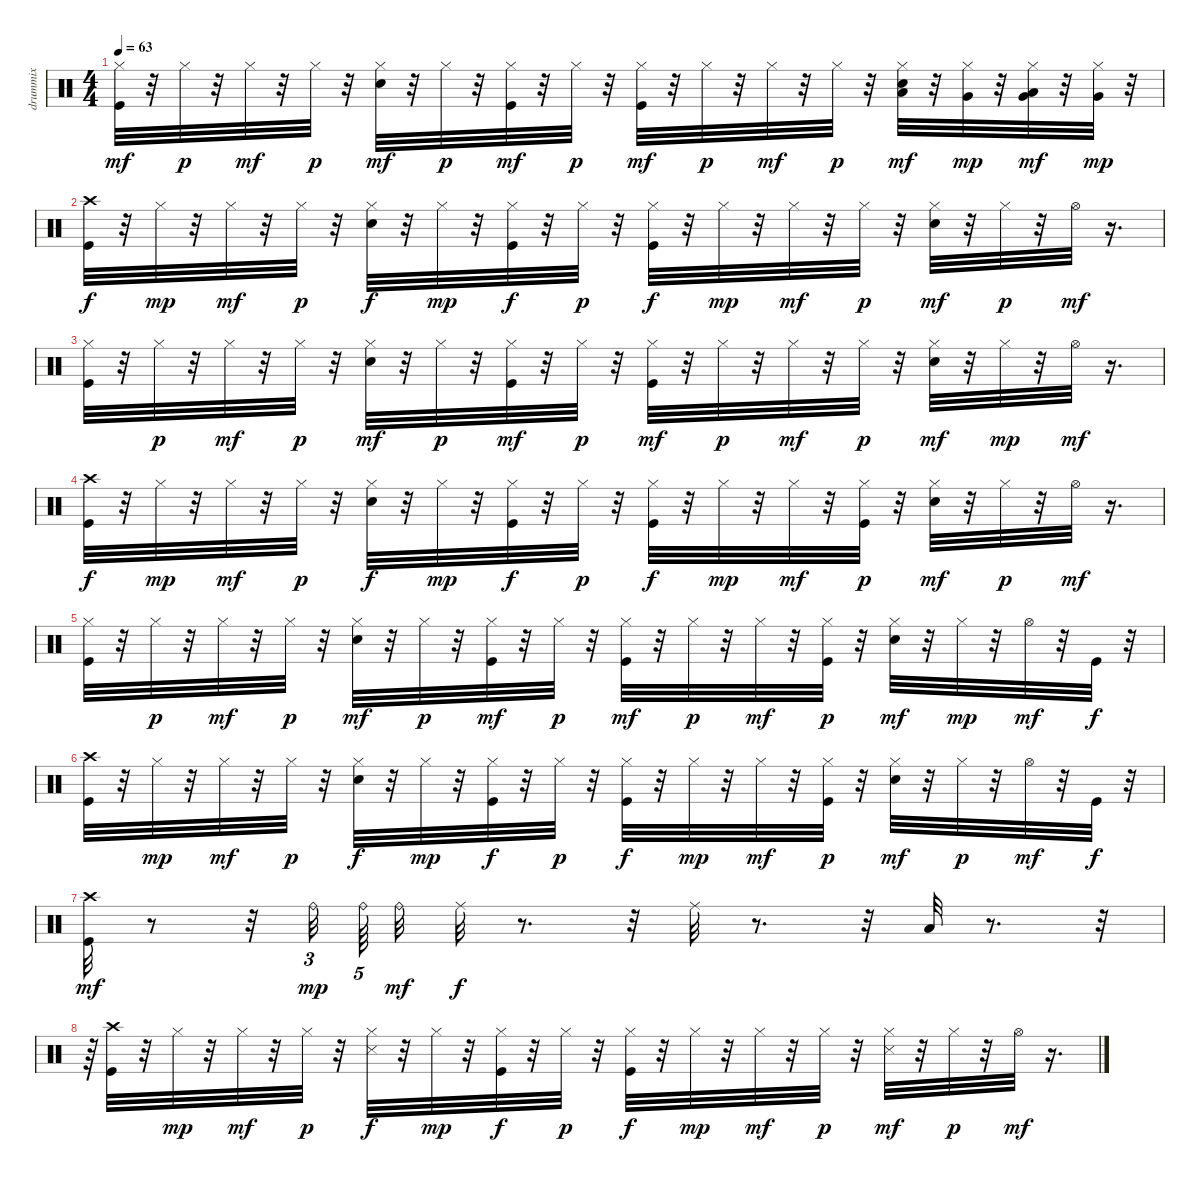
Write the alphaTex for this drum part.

\track ("drummix" "drummix") {instrument percussion}
\staff {score}
\articulation defaults
\ts (4 4)
\tempo 63
\clef neutral
\ks c
("Kick (hit)" "Hi-Hat (closed)").32{dy mf} r.32 "Hi-Hat (closed)".32{dy p} r.32 "Hi-Hat (closed)".32{dy mf} r.32 "Hi-Hat (closed)".32{dy p} r.32 ("Snare (hit) 2" "Hi-Hat (closed)").32{dy mf} r.32 "Hi-Hat (closed)".32{dy p} r.32 ("Kick (hit)" "Hi-Hat (closed)").32{dy mf} r.32 "Hi-Hat (closed)".32{dy p} r.32 ("Kick (hit)" "Hi-Hat (closed)").32{dy mf} r.32 "Hi-Hat (closed)".32{dy p} r.32 "Hi-Hat (closed)".32{dy mf} r.32 "Hi-Hat (closed)".32{dy p} r.32 ("Snare (hit) 2" "Hi-Hat (closed)" "Low Tom (hit)").32{dy mf} r.32 ("Hi-Hat (closed)" "Very Low Tom (hit)").32{dy mp} r.32 ("Low Floor Tom (hit)" "Hi-Hat (closed)" "Very Low Tom (hit)").32{dy mf} r.32 ("Hi-Hat (closed)" "Very Low Tom (hit)").32{dy mp} r.32 |
("Kick (hit)" "Crash high (hit)").32{dy f} r.32 "Hi-Hat (closed)".32{dy mp} r.32 "Hi-Hat (closed)".32{dy mf} r.32 "Hi-Hat (closed)".32{dy p} r.32 ("Snare (hit) 2" "Hi-Hat (closed)").32{dy f} r.32 "Hi-Hat (closed)".32{dy mp} r.32 ("Kick (hit)" "Hi-Hat (closed)").32{dy f} r.32 "Hi-Hat (closed)".32{dy p} r.32 ("Kick (hit)" "Hi-Hat (closed)").32{dy f} r.32 "Hi-Hat (closed)".32{dy mp} r.32 "Hi-Hat (closed)".32{dy mf} r.32 "Hi-Hat (closed)".32{dy p} r.32 ("Snare (hit) 2" "Hi-Hat (closed)").32{dy mf} r.32 "Hi-Hat (closed)".32{dy p} r.32 "Hi-Hat (open)".32{dy mf} r.16{d} |
("Kick (hit)" "Hi-Hat (closed)").32 r.32 "Hi-Hat (closed)".32{dy p} r.32 "Hi-Hat (closed)".32{dy mf} r.32 "Hi-Hat (closed)".32{dy p} r.32 ("Snare (hit) 2" "Hi-Hat (closed)").32{dy mf} r.32 "Hi-Hat (closed)".32{dy p} r.32 ("Kick (hit)" "Hi-Hat (closed)").32{dy mf} r.32 "Hi-Hat (closed)".32{dy p} r.32 ("Kick (hit)" "Hi-Hat (closed)").32{dy mf} r.32 "Hi-Hat (closed)".32{dy p} r.32 "Hi-Hat (closed)".32{dy mf} r.32 "Hi-Hat (closed)".32{dy p} r.32 ("Snare (hit) 2" "Hi-Hat (closed)").32{dy mf} r.32 "Hi-Hat (closed)".32{dy mp} r.32 "Hi-Hat (open)".32{dy mf} r.16{d} |
("Kick (hit)" "Crash high (hit)").32{dy f} r.32 "Hi-Hat (closed)".32{dy mp} r.32 "Hi-Hat (closed)".32{dy mf} r.32 "Hi-Hat (closed)".32{dy p} r.32 ("Snare (hit) 2" "Hi-Hat (closed)").32{dy f} r.32 "Hi-Hat (closed)".32{dy mp} r.32 ("Kick (hit)" "Hi-Hat (closed)").32{dy f} r.32 "Hi-Hat (closed)".32{dy p} r.32 ("Kick (hit)" "Hi-Hat (closed)").32{dy f} r.32 "Hi-Hat (closed)".32{dy mp} r.32 "Hi-Hat (closed)".32{dy mf} r.32 ("Kick (hit)" "Hi-Hat (closed)").32{dy p} r.32 ("Snare (hit) 2" "Hi-Hat (closed)").32{dy mf} r.32 "Hi-Hat (closed)".32{dy p} r.32 "Hi-Hat (open)".32{dy mf} r.16{d} |
("Kick (hit)" "Hi-Hat (closed)").32 r.32 "Hi-Hat (closed)".32{dy p} r.32 "Hi-Hat (closed)".32{dy mf} r.32 "Hi-Hat (closed)".32{dy p} r.32 ("Snare (hit) 2" "Hi-Hat (closed)").32{dy mf} r.32 "Hi-Hat (closed)".32{dy p} r.32 ("Kick (hit)" "Hi-Hat (closed)").32{dy mf} r.32 "Hi-Hat (closed)".32{dy p} r.32 ("Kick (hit)" "Hi-Hat (closed)").32{dy mf} r.32 "Hi-Hat (closed)".32{dy p} r.32 "Hi-Hat (closed)".32{dy mf} r.32 ("Kick (hit)" "Hi-Hat (closed)").32{dy p} r.32 ("Snare (hit) 2" "Hi-Hat (closed)").32{dy mf} r.32 "Hi-Hat (closed)".32{dy mp} r.32 "Hi-Hat (open)".32{dy mf} r.32 "Kick (hit)".32{dy f} r.32 |
("Kick (hit)" "Crash high (hit)").32 r.32 "Hi-Hat (closed)".32{dy mp} r.32 "Hi-Hat (closed)".32{dy mf} r.32 "Hi-Hat (closed)".32{dy p} r.32 ("Snare (hit) 2" "Hi-Hat (closed)").32{dy f} r.32 "Hi-Hat (closed)".32{dy mp} r.32 ("Kick (hit)" "Hi-Hat (closed)").32{dy f} r.32 "Hi-Hat (closed)".32{dy p} r.32 ("Kick (hit)" "Hi-Hat (closed)").32{dy f} r.32 "Hi-Hat (closed)".32{dy mp} r.32 "Hi-Hat (closed)".32{dy mf} r.32 ("Kick (hit)" "Hi-Hat (closed)").32{dy p} r.32 ("Snare (hit) 2" "Hi-Hat (closed)").32{dy mf} r.32 "Hi-Hat (closed)".32{dy p} r.32 "Hi-Hat (open)".32{dy mf} r.32 "Kick (hit)".32{dy f} r.32 |
("Kick (hit)" "Crash high (hit)").32{dy mf} r.8 r.32 "Ride (bell)".32{tu (3 2) dy mp} "Ride (bell)".64{tu (5 4) beam splitsecondary} "Ride (bell)".32{dy mf} "Ride (middle)".32{dy f} r.8{d} r.32 "Ride (middle)".32 r.8{d} r.32 "Low Floor Tom (hit)".32 r.8{d} r.32 |
r.64 ("Kick (hit)" "Crash high (hit)").32 r.32 "Hi-Hat (closed)".32{dy mp} r.32 "Hi-Hat (closed)".32{dy mf} r.32 "Hi-Hat (closed)".32{dy p} r.32 ("Snare (side stick) 3" "Hi-Hat (closed)").32{dy f} r.32 "Hi-Hat (closed)".32{dy mp} r.32 ("Kick (hit)" "Hi-Hat (closed)").32{dy f} r.32 "Hi-Hat (closed)".32{dy p} r.32 ("Kick (hit)" "Hi-Hat (closed)").32{dy f} r.32 "Hi-Hat (closed)".32{dy mp} r.32 "Hi-Hat (closed)".32{dy mf} r.32 "Hi-Hat (closed)".32{dy p} r.32 ("Snare (side stick) 3" "Hi-Hat (closed)").32{dy mf} r.32 "Hi-Hat (closed)".32{dy p} r.32 "Hi-Hat (open)".32{dy mf} r.16{d}
